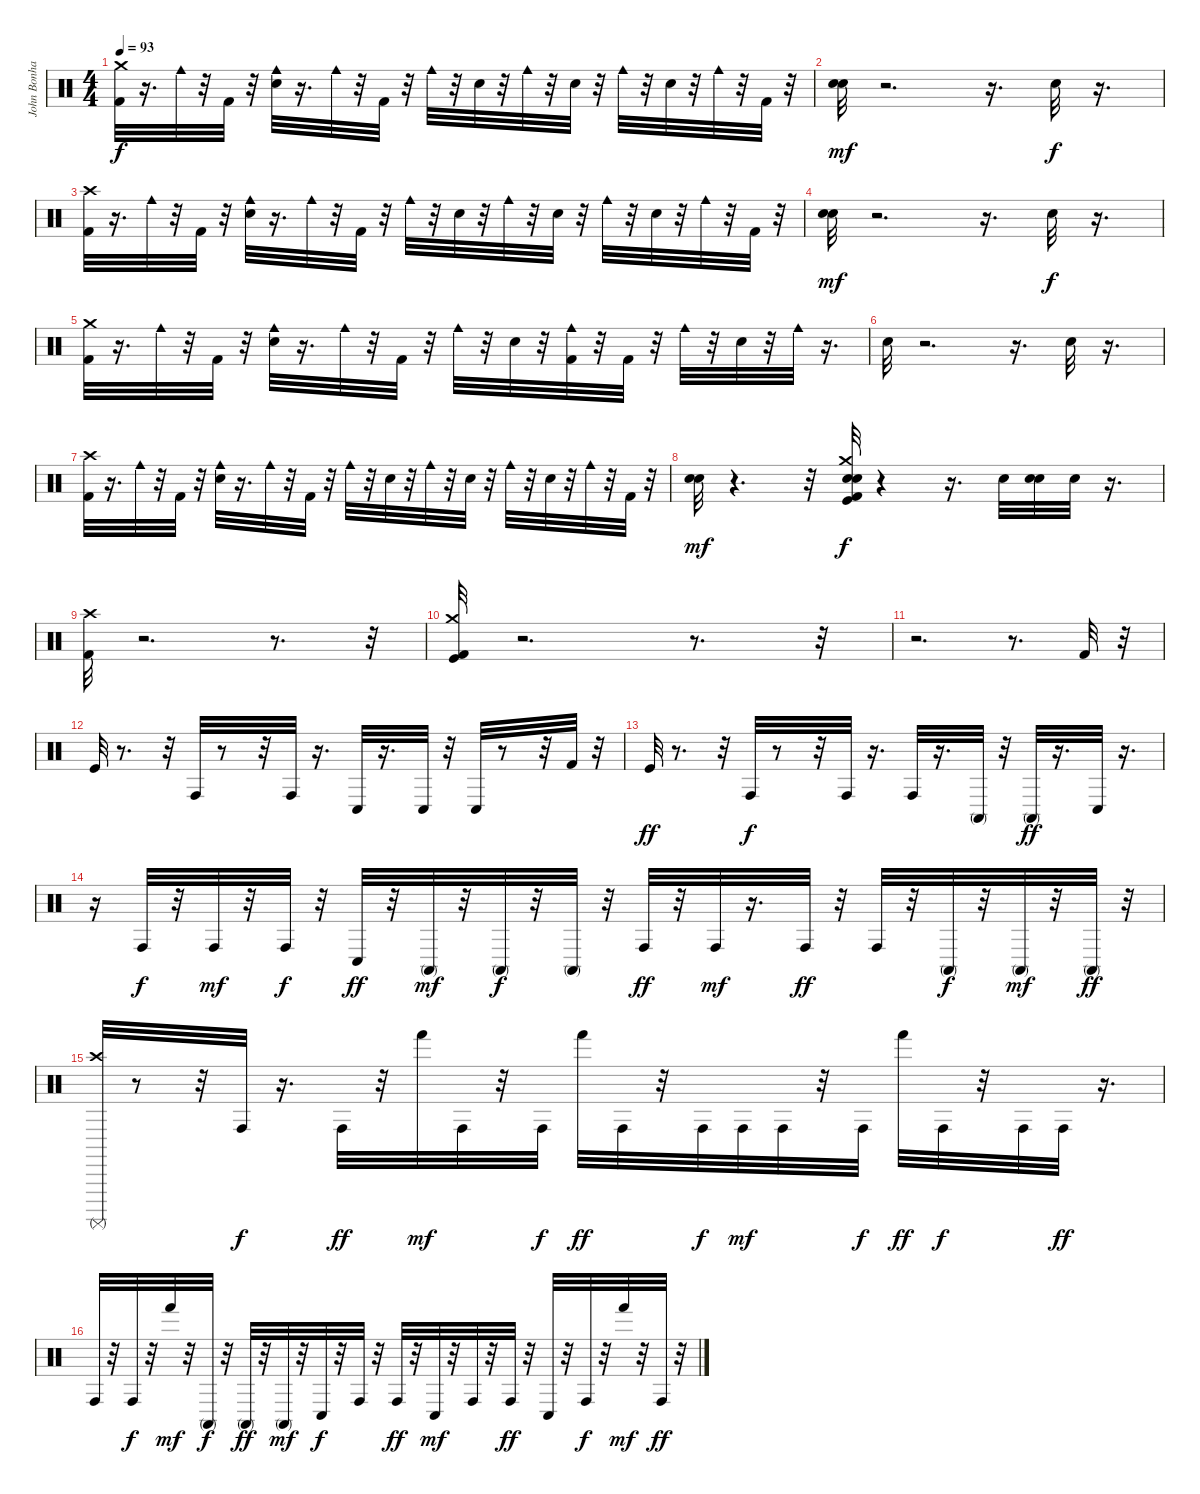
\track ("John Bonham" "John Bonha") {instrument percussion}
\staff {score}
\articulation defaults
\ts (4 4)
\tempo 93
\clef neutral
\ks c
("Kick (hit) 2" "Crash medium (hit)").32{dy f} r.16{d} "Cowbell medium (hit)".32 r.32 "Kick (hit) 2".32 r.32 ("Electric Snare (hit)" "Cowbell medium (hit)").32 r.16{d} "Cowbell medium (hit)".32 r.32 "Kick (hit) 2".32 r.32 "Cowbell medium (hit)".32 r.32 "Electric Snare (hit)".32 r.32 "Cowbell medium (hit)".32 r.32 "Electric Snare (hit)".32 r.32 "Cowbell medium (hit)".32 r.32 "Electric Snare (hit)".32 r.32 "Cowbell medium (hit)".32 r.32 "Kick (hit) 2".32 r.32 |
("Electric Snare (hit)" "Snare (hit) 2").32{dy mf} r.2{d} r.16{d} "Electric Snare (hit)".32{dy f} r.16{d} |
("Crash high (hit)" "Kick (hit) 2").32 r.16{d} "Cowbell medium (hit)".32 r.32 "Kick (hit) 2".32 r.32 ("Cowbell medium (hit)" "Electric Snare (hit)").32 r.16{d} "Cowbell medium (hit)".32 r.32 "Kick (hit) 2".32 r.32 "Cowbell medium (hit)".32 r.32 "Electric Snare (hit)".32 r.32 "Cowbell medium (hit)".32 r.32 "Electric Snare (hit)".32 r.32 "Cowbell medium (hit)".32 r.32 "Electric Snare (hit)".32 r.32 "Cowbell medium (hit)".32 r.32 "Kick (hit) 2".32 r.32 |
("Snare (hit) 2" "Electric Snare (hit)").32{dy mf} r.2{d} r.16{d} "Electric Snare (hit)".32{dy f} r.16{d} |
("Crash medium (hit)" "Kick (hit) 2").32 r.16{d} "Cowbell medium (hit)".32 r.32 "Kick (hit) 2".32 r.32 ("Cowbell medium (hit)" "Electric Snare (hit)").32 r.16{d} "Cowbell medium (hit)".32 r.32 "Kick (hit) 2".32 r.32 "Cowbell medium (hit)".32 r.32 "Electric Snare (hit)".32 r.32 ("Kick (hit) 2" "Cowbell medium (hit)").32 r.32 "Kick (hit) 2".32 r.32 "Cowbell medium (hit)".32 r.32 "Electric Snare (hit)".32 r.32 "Cowbell medium (hit)".32 r.16{d} |
"Electric Snare (hit)".32 r.2{d} r.16{d} "Electric Snare (hit)".32 r.16{d} |
("Kick (hit) 2" "Crash high (hit)").32 r.16{d} "Cowbell medium (hit)".32 r.32 "Kick (hit) 2".32 r.32 ("Electric Snare (hit)" "Cowbell medium (hit)").32 r.16{d} "Cowbell medium (hit)".32 r.32 "Kick (hit) 2".32 r.32 "Cowbell medium (hit)".32 r.32 "Electric Snare (hit)".32 r.32 "Cowbell medium (hit)".32 r.32 "Electric Snare (hit)".32 r.32 "Cowbell medium (hit)".32 r.32 "Electric Snare (hit)".32 r.32 "Cowbell medium (hit)".32 r.32 "Kick (hit) 2".32 r.32 |
("Electric Snare (hit)" "Snare (hit) 2").32{dy mf} r.4{d} r.32 ("Crash medium (hit)" "Snare (hit) 2" "Kick (hit)" "Kick (hit) 2" "Electric Snare (hit)").32{dy f} r.4 r.16{d} "Electric Snare (hit)".32 ("Electric Snare (hit)" "Electric Snare (hit)").32 "Electric Snare (hit)".32 r.16{d} |
("Kick (hit) 2" "Crash high (hit)").32 r.2{d} r.8{d} r.32 |
("Kick (hit)" "Crash medium (hit)" "Kick (hit) 2").32 r.2{d} r.8{d} r.32 |
r.2{d} r.8{d} "Kick (hit) 2".32 r.32 |
"Kick (hit)".32 r.8{d} r.32 "Conga high (hit)".32 r.8 r.32 "Conga high (hit)".32 r.16{d} "Conga low (hit)".32 r.16{d} "Conga low (hit)".32 r.32 "Conga low (hit)".32 r.8 r.32 "Kick (hit) 2".32 r.32 |
"Kick (hit)".32{dy ff} r.8{d} r.32 "Conga high (hit)".32{dy f} r.8 r.32 "Conga high (hit)".32 r.16{d} "Conga high (hit)".32 r.16{d} "Conga high (mute)".32 r.32 "Conga high (mute)".32{dy ff} r.16{d} "Conga low (hit)".32 r.16{d} |
r.16 "Conga high (hit)".32{dy f} r.32 "Conga high (hit)".32{dy mf} r.32 "Conga high (hit)".32{dy f} r.32 "Conga low (hit)".32{dy ff} r.32 "Conga high (mute)".32{dy mf} r.32 "Conga high (mute)".32{dy f} r.32 "Conga high (mute)".32 r.32 "Conga high (hit)".32{dy ff} r.32 "Conga high (hit)".32{dy mf} r.16{d} "Conga high (hit)".32{dy ff} r.32 "Conga high (hit)".32 r.32 "Conga high (mute)".32{dy f} r.32 "Conga high (mute)".32{dy mf} r.32 "Conga high (mute)".32{dy ff} r.32 |
("Crash high (hit)" "Surdo (mute)").32 r.8 r.32 "Conga high (hit)".32{dy f} r.16{d} "Conga high (hit)".32{dy ff} r.32 "Hand (hit)".32{dy mf} "Conga high (hit)".32 r.32 "Conga high (hit)".32{dy f} "Hand (hit)".32{dy ff} "Conga high (hit)".32 r.32 "Conga high (hit)".32{dy f} "Conga high (hit)".32{dy mf} "Conga high (hit)".32 r.32 "Conga high (hit)".32{dy f} "Hand (hit)".32{dy ff} "Conga high (hit)".32{dy f} r.32 "Conga high (hit)".32 "Conga high (hit)".32{dy ff} r.16{d} |
"Conga high (hit)".32 r.32 "Conga high (hit)".32{dy f} r.32 "Hand (hit)".32{dy mf} r.32 "Conga high (mute)".32{dy f} r.32 "Conga high (mute)".32{dy ff} r.32 "Conga high (mute)".32{dy mf} r.32 "Conga low (hit)".32{dy f} r.32 "Conga high (hit)".32 r.32 "Conga high (hit)".32{dy ff} r.32 "Conga low (hit)".32{dy mf} r.32 "Conga high (hit)".32 r.32 "Conga high (hit)".32{dy ff} r.32 "Conga low (hit)".32 r.32 "Conga high (hit)".32{dy f} r.32 "Hand (hit)".32{dy mf} r.32 "Conga high (hit)".32{dy ff} r.32
